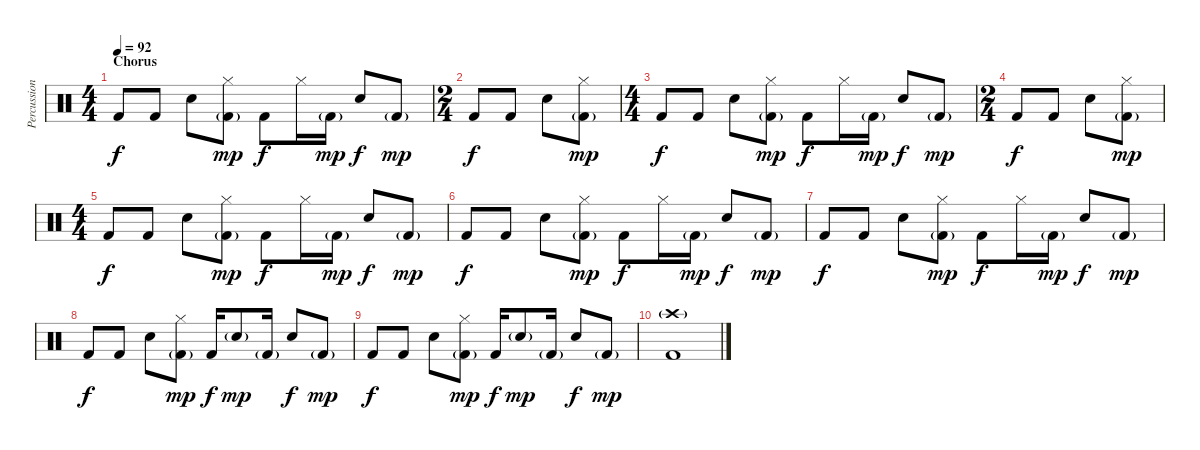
\track ("Percussion" "Percussion") {instrument percussion}
\staff {score}
\articulation defaults
\ts (4 4)
\section ("" "Chorus")
\tempo 92
\clef neutral
\ks c "Kick (hit) 2".8{dy f} "Kick (hit) 2".8 "Snare (hit) 2".8
("Hi-Hat (closed)" "Kick (hit) 2"{g}).8{dy mp} "Kick (hit) 2".8{dy f} "Hi-Hat (closed)".16 "Kick (hit) 2"{g}.16{dy mp} "Snare (hit) 2".8{dy f} "Kick (hit) 2"{g}.8{dy mp} |
\ts (2 4)
"Kick (hit) 2".8{dy f} "Kick (hit) 2".8 "Snare (hit) 2".8 ("Hi-Hat (closed)" "Kick (hit) 2"{g}).8{dy mp} |
\ts (4 4)
"Kick (hit) 2".8{dy f} "Kick (hit) 2".8 "Snare (hit) 2".8 ("Hi-Hat (closed)" "Kick (hit) 2"{g}).8{dy mp} "Kick (hit) 2".8{dy f} "Hi-Hat (closed)".16 "Kick (hit) 2"{g}.16{dy mp} "Snare (hit) 2".8{dy f} "Kick (hit) 2"{g}.8{dy mp} |
\ts (2 4)
"Kick (hit) 2".8{dy f} "Kick (hit) 2".8 "Snare (hit) 2".8 ("Hi-Hat (closed)" "Kick (hit) 2"{g}).8{dy mp} |
\ts (4 4)
"Kick (hit) 2".8{dy f} "Kick (hit) 2".8 "Snare (hit) 2".8 ("Hi-Hat (closed)" "Kick (hit) 2"{g}).8{dy mp} "Kick (hit) 2".8{dy f} "Hi-Hat (closed)".16 "Kick (hit) 2"{g}.16{dy mp} "Snare (hit) 2".8{dy f} "Kick (hit) 2"{g}.8{dy mp} |
"Kick (hit) 2".8{dy f} "Kick (hit) 2".8 "Snare (hit) 2".8 ("Hi-Hat (closed)" "Kick (hit) 2"{g}).8{dy mp} "Kick (hit) 2".8{dy f} "Hi-Hat (closed)".16 "Kick (hit) 2"{g}.16{dy mp} "Snare (hit) 2".8{dy f} "Kick (hit) 2"{g}.8{dy mp} |
"Kick (hit) 2".8{dy f} "Kick (hit) 2".8 "Snare (hit) 2".8 ("Hi-Hat (closed)" "Kick (hit) 2"{g}).8{dy mp} "Kick (hit) 2".8{dy f} "Hi-Hat (closed)".16 "Kick (hit) 2"{g}.16{dy mp} "Snare (hit) 2".8{dy f} "Kick (hit) 2"{g}.8{dy mp} |
"Kick (hit) 2".8{dy f} "Kick (hit) 2".8 "Snare (hit) 2".8 ("Hi-Hat (closed)" "Kick (hit) 2"{g}).8{dy mp} "Kick (hit) 2".16{dy f} "Snare (hit) 2"{g}.8{dy mp} "Kick (hit) 2"{g}.16 "Snare (hit) 2".8{dy f} "Kick (hit) 2"{g}.8{dy mp} |
"Kick (hit) 2".8{dy f} "Kick (hit) 2".8 "Snare (hit) 2".8 ("Hi-Hat (closed)" "Kick (hit) 2"{g}).8{dy mp} "Kick (hit) 2".16{dy f} "Snare (hit) 2"{g}.8{dy mp} "Kick (hit) 2"{g}.16 "Snare (hit) 2".8{dy f} "Kick (hit) 2"{g}.8{dy mp} |
("Crash high (hit)"{g} "Kick (hit) 2").1
